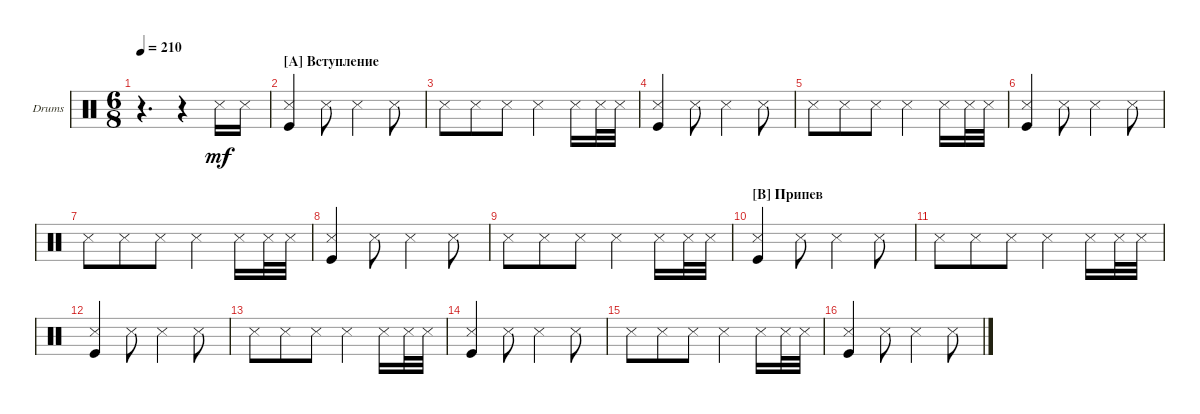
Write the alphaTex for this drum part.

\defaultSystemsLayout 4
\bracketExtendMode nobrackets
\firstSystemTrackNameOrientation horizontal
\otherSystemsTrackNameOrientation horizontal
\track ("Drumkit" "Drums") {instrument percussion}
\staff {score}
\articulation defaults
\ts (6 8)
\tempo 210
\clef neutral
\scale
0.474178
\ks c
r.4{d dy mf} r.4 "Snare (side stick) 3".16 "Snare (side stick) 3".16 |
\section ("A" "Вступление")
\scale
0.262911 ("Kick (hit)" "Snare (side stick) 3").4 "Snare (side stick) 3".8 "Snare (side stick) 3".4 "Snare (side stick) 3".8 |
\scale
0.262911 "Snare (side stick) 3".8 "Snare (side stick) 3".8 "Snare (side stick) 3".8 "Snare (side stick) 3".4 "Snare (side stick) 3".16 "Snare (side stick) 3".32 "Snare (side stick) 3".32 |
\scale
0.333333 ("Kick (hit)" "Snare (side stick) 3").4 "Snare (side stick) 3".8 "Snare (side stick) 3".4 "Snare (side stick) 3".8 |
\scale
0.333333 "Snare (side stick) 3".8 "Snare (side stick) 3".8 "Snare (side stick) 3".8 "Snare (side stick) 3".4 "Snare (side stick) 3".16 "Snare (side stick) 3".32 "Snare (side stick) 3".32 |
\scale
0.333333 ("Kick (hit)" "Snare (side stick) 3").4 "Snare (side stick) 3".8 "Snare (side stick) 3".4 "Snare (side stick) 3".8 |
\scale
0.333333 "Snare (side stick) 3".8 "Snare (side stick) 3".8 "Snare (side stick) 3".8 "Snare (side stick) 3".4 "Snare (side stick) 3".16 "Snare (side stick) 3".32 "Snare (side stick) 3".32 |
\scale
0.333333 ("Kick (hit)" "Snare (side stick) 3").4 "Snare (side stick) 3".8 "Snare (side stick) 3".4 "Snare (side stick) 3".8 |
\scale
0.333333 "Snare (side stick) 3".8 "Snare (side stick) 3".8 "Snare (side stick) 3".8 "Snare (side stick) 3".4 "Snare (side stick) 3".16 "Snare (side stick) 3".32 "Snare (side stick) 3".32 |
\section ("B" "Припев")
\scale
0.333333 ("Kick (hit)" "Snare (side stick) 3").4 "Snare (side stick) 3".8 "Snare (side stick) 3".4 "Snare (side stick) 3".8 |
\scale
0.333333 "Snare (side stick) 3".8 "Snare (side stick) 3".8 "Snare (side stick) 3".8 "Snare (side stick) 3".4 "Snare (side stick) 3".16 "Snare (side stick) 3".32 "Snare (side stick) 3".32 |
\scale
0.333333 ("Kick (hit)" "Snare (side stick) 3").4 "Snare (side stick) 3".8 "Snare (side stick) 3".4 "Snare (side stick) 3".8 |
\scale
0.333333 "Snare (side stick) 3".8 "Snare (side stick) 3".8 "Snare (side stick) 3".8 "Snare (side stick) 3".4 "Snare (side stick) 3".16 "Snare (side stick) 3".32 "Snare (side stick) 3".32 |
\scale
0.333333 ("Kick (hit)" "Snare (side stick) 3").4 "Snare (side stick) 3".8 "Snare (side stick) 3".4 "Snare (side stick) 3".8 |
\scale
0.333333 "Snare (side stick) 3".8 "Snare (side stick) 3".8 "Snare (side stick) 3".8 "Snare (side stick) 3".4 "Snare (side stick) 3".16 "Snare (side stick) 3".32 "Snare (side stick) 3".32 |
\scale
0.333333 ("Kick (hit)" "Snare (side stick) 3").4 "Snare (side stick) 3".8 "Snare (side stick) 3".4 "Snare (side stick) 3".8
